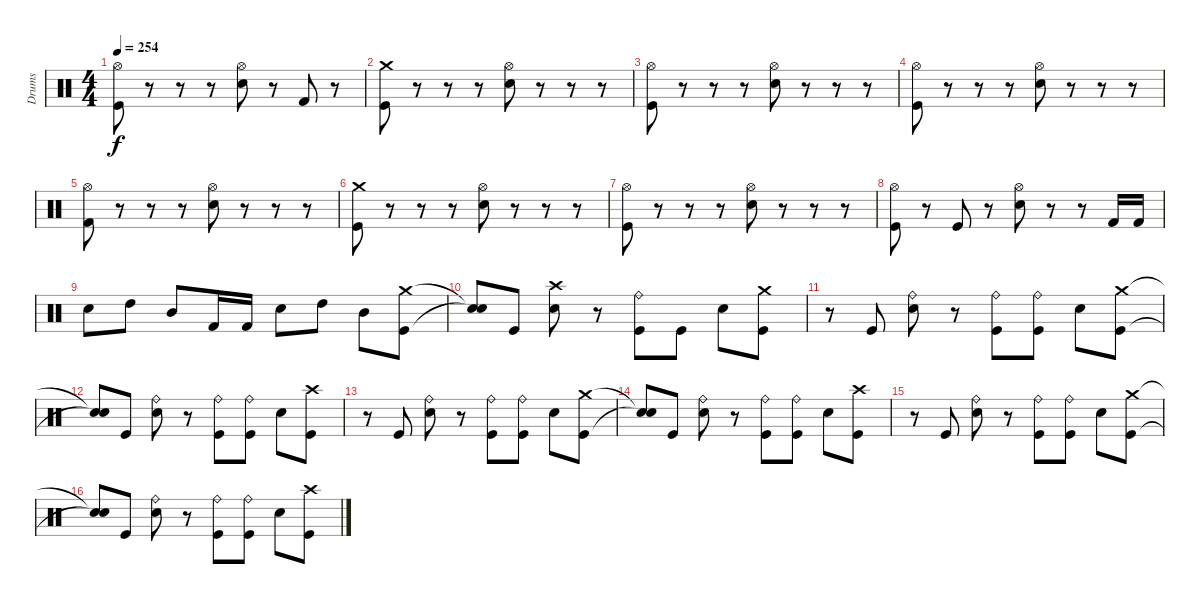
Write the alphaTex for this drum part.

\track ("Drums" "Drums") {instrument percussion}
\staff {score}
\articulation defaults
\ts (4 4)
\tempo 254
\clef neutral
\ks c
("Hi-Hat (open)" "Kick (hit)").8{dy f} r.8 r.8 r.8 ("Hi-Hat (open)" "Electric Snare (hit)").8 r.8 "Kick (hit) 2".8 r.8 |
("Crash medium (hit)" "Kick (hit)").8 r.8 r.8 r.8 ("Hi-Hat (open)" "Electric Snare (hit)").8 r.8 r.8 r.8 |
("Hi-Hat (open)" "Kick (hit)").8 r.8 r.8 r.8 ("Hi-Hat (open)" "Electric Snare (hit)").8 r.8 r.8 r.8 |
("Hi-Hat (open)" "Kick (hit)").8 r.8 r.8 r.8 ("Hi-Hat (open)" "Electric Snare (hit)").8 r.8 r.8 r.8 |
("Hi-Hat (open)" "Kick (hit) 2").8 r.8 r.8 r.8 ("Hi-Hat (open)" "Electric Snare (hit)").8 r.8 r.8 r.8 |
("Crash medium (hit)" "Kick (hit)").8 r.8 r.8 r.8 ("Hi-Hat (open)" "Electric Snare (hit)").8 r.8 r.8 r.8 |
("Hi-Hat (open)" "Kick (hit)").8 r.8 r.8 r.8 ("Hi-Hat (open)" "Electric Snare (hit)").8 r.8 r.8 r.8 |
("Hi-Hat (open)" "Kick (hit)").8 r.8 "Kick (hit)".8 r.8 ("Hi-Hat (open)" "Electric Snare (hit)").8 r.8 r.8 "Kick (hit) 2".16 "Kick (hit) 2".16 |
"Electric Snare (hit)".8 "High Tom (hit)".8 "Mid Tom (hit)".8 "Kick (hit) 2".16 "Kick (hit) 2".16 "Electric Snare (hit)".8 "High Tom (hit)".8 "Mid Tom (hit)".8 ("Crash medium (hit)" "Kick (hit)").8 |
("Snare (hit)"{t} "Snare (hit)"{t}).8 "Kick (hit)".8 ("Crash high (hit)" "Electric Snare (hit)").8 r.8 ("Ride (bell)" "Kick (hit)").8 "Kick (hit)".8 "Electric Snare (hit)".8 ("Crash medium (hit)" "Kick (hit)").8 |
r.8 "Kick (hit)".8 ("Ride (bell)" "Electric Snare (hit)").8 r.8 ("Ride (bell)" "Kick (hit)").8 ("Ride (bell)" "Kick (hit)").8 "Electric Snare (hit)".8 ("Crash medium (hit)" "Kick (hit)").8 |
("Snare (hit)"{t} "Snare (hit)"{t}).8 "Kick (hit)".8 ("Ride (bell)" "Electric Snare (hit)").8 r.8 ("Ride (bell)" "Kick (hit)").8 ("Ride (bell)" "Kick (hit)").8 "Electric Snare (hit)".8 ("Crash high (hit)" "Kick (hit)").8 |
r.8 "Kick (hit)".8 ("Ride (bell)" "Electric Snare (hit)").8 r.8 ("Ride (bell)" "Kick (hit)").8 ("Ride (bell)" "Kick (hit)").8 "Electric Snare (hit)".8 ("Crash medium (hit)" "Kick (hit)").8 |
("Snare (hit)"{t} "Snare (hit)"{t}).8 "Kick (hit)".8 ("Ride (bell)" "Electric Snare (hit)").8 r.8 ("Ride (bell)" "Kick (hit)").8 ("Ride (bell)" "Kick (hit)").8 "Electric Snare (hit)".8 ("Crash high (hit)" "Kick (hit)").8 |
r.8 "Kick (hit)".8 ("Ride (bell)" "Electric Snare (hit)").8 r.8 ("Ride (bell)" "Kick (hit)").8 ("Ride (bell)" "Kick (hit)").8 "Electric Snare (hit)".8 ("Crash medium (hit)" "Kick (hit)").8 |
("Snare (hit)"{t} "Snare (hit)"{t}).8 "Kick (hit)".8 ("Ride (bell)" "Electric Snare (hit)").8 r.8 ("Ride (bell)" "Kick (hit)").8 ("Ride (bell)" "Kick (hit)").8 "Electric Snare (hit)".8 ("Crash high (hit)" "Kick (hit)").8
